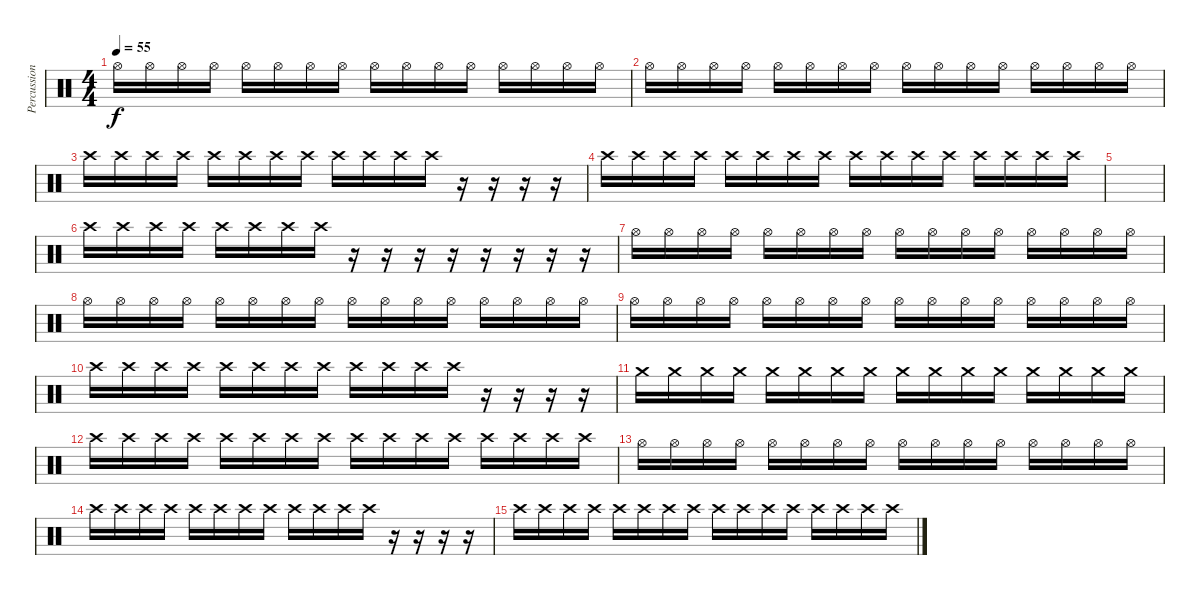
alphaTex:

\track ("Percussion" "Percussion") {instrument percussion}
\staff {score}
\articulation defaults
\ts (4 4)
\tempo 55
\clef neutral
\ks c "Hi-Hat (open)".16{dy f} "Hi-Hat (open)".16 "Hi-Hat (open)".16 "Hi-Hat (open)".16 "Hi-Hat (open)".16 "Hi-Hat (open)".16 "Hi-Hat (open)".16 "Hi-Hat (open)".16 "Hi-Hat (open)".16 "Hi-Hat (open)".16 "Hi-Hat (open)".16 "Hi-Hat (open)".16 "Hi-Hat (open)".16 "Hi-Hat (open)".16 "Hi-Hat (open)".16 "Hi-Hat (open)".16
|
"Hi-Hat (open)".16 "Hi-Hat (open)".16 "Hi-Hat (open)".16 "Hi-Hat (open)".16 "Hi-Hat (open)".16 "Hi-Hat (open)".16 "Hi-Hat (open)".16 "Hi-Hat (open)".16 "Hi-Hat (open)".16 "Hi-Hat (open)".16 "Hi-Hat (open)".16 "Hi-Hat (open)".16 "Hi-Hat (open)".16 "Hi-Hat (open)".16 "Hi-Hat (open)".16 "Hi-Hat (open)".16 |
"Crash high (hit)".16 "Crash high (hit)".16 "Crash high (hit)".16 "Crash high (hit)".16 "Crash high (hit)".16 "Crash high (hit)".16 "Crash high (hit)".16 "Crash high (hit)".16 "Crash high (hit)".16 "Crash high (hit)".16 "Crash high (hit)".16 "Crash high (hit)".16 r.16 r.16 r.16 r.16 |
"Crash high (hit)".16 "Crash high (hit)".16 "Crash high (hit)".16 "Crash high (hit)".16 "Crash high (hit)".16 "Crash high (hit)".16 "Crash high (hit)".16 "Crash high (hit)".16 "Crash high (hit)".16 "Crash high (hit)".16 "Crash high (hit)".16 "Crash high (hit)".16 "Crash high (hit)".16 "Crash high (hit)".16 "Crash high (hit)".16 "Crash high (hit)".16 |
|
"Crash high (hit)".16 "Crash high (hit)".16 "Crash high (hit)".16 "Crash high (hit)".16 "Crash high (hit)".16 "Crash high (hit)".16 "Crash high (hit)".16 "Crash high (hit)".16 r.16 r.16 r.16 r.16 r.16 r.16 r.16 r.16 |
"Hi-Hat (open)".16 "Hi-Hat (open)".16 "Hi-Hat (open)".16 "Hi-Hat (open)".16 "Hi-Hat (open)".16 "Hi-Hat (open)".16 "Hi-Hat (open)".16 "Hi-Hat (open)".16 "Hi-Hat (open)".16 "Hi-Hat (open)".16 "Hi-Hat (open)".16 "Hi-Hat (open)".16 "Hi-Hat (open)".16 "Hi-Hat (open)".16 "Hi-Hat (open)".16 "Hi-Hat (open)".16 |
"Hi-Hat (open)".16 "Hi-Hat (open)".16 "Hi-Hat (open)".16 "Hi-Hat (open)".16 "Hi-Hat (open)".16 "Hi-Hat (open)".16 "Hi-Hat (open)".16 "Hi-Hat (open)".16 "Hi-Hat (open)".16 "Hi-Hat (open)".16 "Hi-Hat (open)".16 "Hi-Hat (open)".16 "Hi-Hat (open)".16 "Hi-Hat (open)".16 "Hi-Hat (open)".16 "Hi-Hat (open)".16 |
"Hi-Hat (open)".16 "Hi-Hat (open)".16 "Hi-Hat (open)".16 "Hi-Hat (open)".16 "Hi-Hat (open)".16 "Hi-Hat (open)".16 "Hi-Hat (open)".16 "Hi-Hat (open)".16 "Hi-Hat (open)".16 "Hi-Hat (open)".16 "Hi-Hat (open)".16 "Hi-Hat (open)".16 "Hi-Hat (open)".16 "Hi-Hat (open)".16 "Hi-Hat (open)".16 "Hi-Hat (open)".16 |
"Crash high (hit)".16 "Crash high (hit)".16 "Crash high (hit)".16 "Crash high (hit)".16 "Crash high (hit)".16 "Crash high (hit)".16 "Crash high (hit)".16 "Crash high (hit)".16 "Crash high (hit)".16 "Crash high (hit)".16 "Crash high (hit)".16 "Crash high (hit)".16 r.16 r.16 r.16 r.16 |
"Crash medium (hit)".16 "Crash medium (hit)".16 "Crash medium (hit)".16 "Crash medium (hit)".16 "Crash medium (hit)".16 "Crash medium (hit)".16 "Crash medium (hit)".16 "Crash medium (hit)".16 "Crash medium (hit)".16 "Crash medium (hit)".16 "Crash medium (hit)".16 "Crash medium (hit)".16 "Crash medium (hit)".16 "Crash medium (hit)".16 "Crash medium (hit)".16 "Crash medium (hit)".16 |
"Crash high (hit)".16 "Crash high (hit)".16 "Crash high (hit)".16 "Crash high (hit)".16 "Crash high (hit)".16 "Crash high (hit)".16 "Crash high (hit)".16 "Crash high (hit)".16 "Crash high (hit)".16 "Crash high (hit)".16 "Crash high (hit)".16 "Crash high (hit)".16 "Crash high (hit)".16 "Crash high (hit)".16 "Crash high (hit)".16 "Crash high (hit)".16 |
"Hi-Hat (open)".16 "Hi-Hat (open)".16 "Hi-Hat (open)".16 "Hi-Hat (open)".16 "Hi-Hat (open)".16 "Hi-Hat (open)".16 "Hi-Hat (open)".16 "Hi-Hat (open)".16 "Hi-Hat (open)".16 "Hi-Hat (open)".16 "Hi-Hat (open)".16 "Hi-Hat (open)".16 "Hi-Hat (open)".16 "Hi-Hat (open)".16 "Hi-Hat (open)".16 "Hi-Hat (open)".16 |
"Crash high (hit)".16 "Crash high (hit)".16 "Crash high (hit)".16 "Crash high (hit)".16 "Crash high (hit)".16 "Crash high (hit)".16 "Crash high (hit)".16 "Crash high (hit)".16 "Crash high (hit)".16 "Crash high (hit)".16 "Crash high (hit)".16 "Crash high (hit)".16 r.16 r.16 r.16 r.16 |
"Crash high (hit)".16 "Crash high (hit)".16 "Crash high (hit)".16 "Crash high (hit)".16 "Crash high (hit)".16 "Crash high (hit)".16 "Crash high (hit)".16 "Crash high (hit)".16 "Crash high (hit)".16 "Crash high (hit)".16 "Crash high (hit)".16 "Crash high (hit)".16 "Crash high (hit)".16 "Crash high (hit)".16 "Crash high (hit)".16 "Crash high (hit)".16
